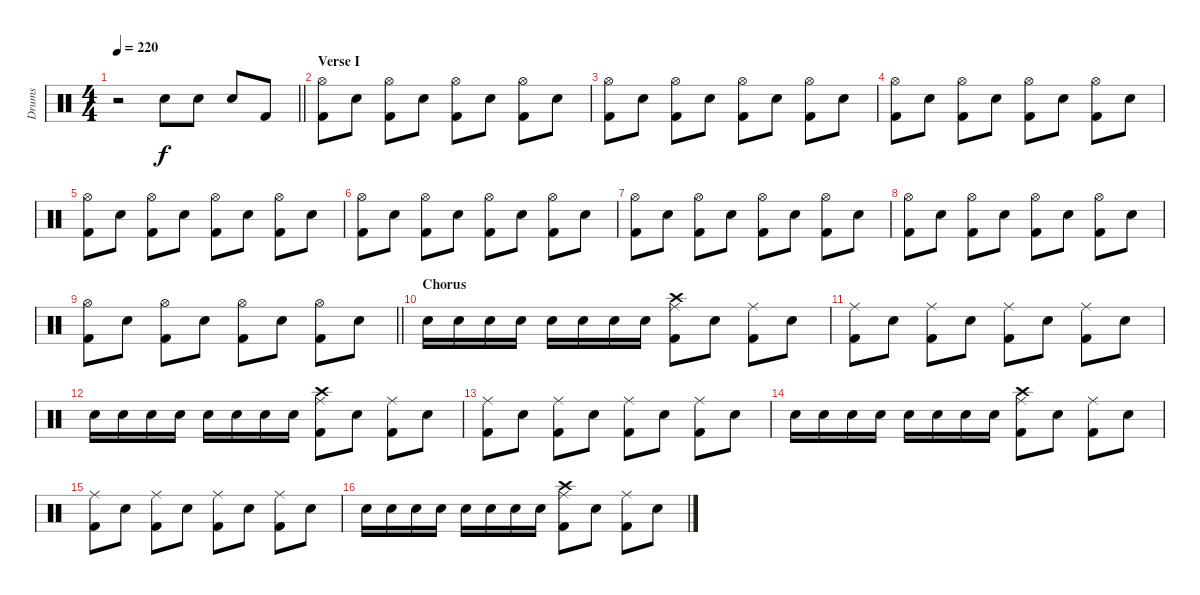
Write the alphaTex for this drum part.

\track ("Drums" "Drums") {instrument percussion}
\staff {score}
\articulation defaults
\ts (4 4)
\tempo 220
\clef neutral
\barLineRight lightlight
\ks c
r.2{dy f} "Snare (hit) 2".8 "Snare (hit) 2".8 "Snare (hit) 2".8 "Kick (hit) 2".8 |
\section ("" "Verse I")
("Kick (hit) 2" "Hi-Hat (open)").8 "Snare (hit) 2".8 ("Kick (hit) 2" "Hi-Hat (open)").8 "Snare (hit) 2".8 ("Kick (hit) 2" "Hi-Hat (open)").8 "Snare (hit) 2".8 ("Kick (hit) 2" "Hi-Hat (open)").8 "Snare (hit) 2".8 |
("Kick (hit) 2" "Hi-Hat (open)").8 "Snare (hit) 2".8 ("Kick (hit) 2" "Hi-Hat (open)").8 "Snare (hit) 2".8 ("Kick (hit) 2" "Hi-Hat (open)").8 "Snare (hit) 2".8 ("Kick (hit) 2" "Hi-Hat (open)").8 "Snare (hit) 2".8 |
("Kick (hit) 2" "Hi-Hat (open)").8 "Snare (hit) 2".8 ("Kick (hit) 2" "Hi-Hat (open)").8 "Snare (hit) 2".8 ("Kick (hit) 2" "Hi-Hat (open)").8 "Snare (hit) 2".8 ("Kick (hit) 2" "Hi-Hat (open)").8 "Snare (hit) 2".8 |
("Kick (hit) 2" "Hi-Hat (open)").8 "Snare (hit) 2".8 ("Kick (hit) 2" "Hi-Hat (open)").8 "Snare (hit) 2".8 ("Kick (hit) 2" "Hi-Hat (open)").8 "Snare (hit) 2".8 ("Kick (hit) 2" "Hi-Hat (open)").8 "Snare (hit) 2".8 |
("Kick (hit) 2" "Hi-Hat (open)").8 "Snare (hit) 2".8 ("Kick (hit) 2" "Hi-Hat (open)").8 "Snare (hit) 2".8 ("Kick (hit) 2" "Hi-Hat (open)").8 "Snare (hit) 2".8 ("Kick (hit) 2" "Hi-Hat (open)").8 "Snare (hit) 2".8 |
("Kick (hit) 2" "Hi-Hat (open)").8 "Snare (hit) 2".8 ("Kick (hit) 2" "Hi-Hat (open)").8 "Snare (hit) 2".8 ("Kick (hit) 2" "Hi-Hat (open)").8 "Snare (hit) 2".8 ("Kick (hit) 2" "Hi-Hat (open)").8 "Snare (hit) 2".8 |
("Kick (hit) 2" "Hi-Hat (open)").8 "Snare (hit) 2".8 ("Kick (hit) 2" "Hi-Hat (open)").8 "Snare (hit) 2".8 ("Kick (hit) 2" "Hi-Hat (open)").8 "Snare (hit) 2".8 ("Kick (hit) 2" "Hi-Hat (open)").8 "Snare (hit) 2".8 |
\barLineRight lightlight
("Kick (hit) 2" "Hi-Hat (open)").8 "Snare (hit) 2".8 ("Kick (hit) 2" "Hi-Hat (open)").8 "Snare (hit) 2".8 ("Kick (hit) 2" "Hi-Hat (open)").8 "Snare (hit) 2".8 ("Kick (hit) 2" "Hi-Hat (open)").8 "Snare (hit) 2".8 |
\section ("" "Chorus")
"Snare (hit) 2".16 "Snare (hit) 2".16 "Snare (hit) 2".16 "Snare (hit) 2".16 "Snare (hit) 2".16 "Snare (hit) 2".16 "Snare (hit) 2".16 "Snare (hit) 2".16 ("Kick (hit) 2" "Ride (middle)" "Crash high (hit)").8 "Snare (hit) 2".8 ("Kick (hit) 2" "Ride (middle)").8 "Snare (hit) 2".8 |
("Kick (hit) 2" "Ride (middle)").8 "Snare (hit) 2".8 ("Kick (hit) 2" "Ride (middle)").8 "Snare (hit) 2".8 ("Kick (hit) 2" "Ride (middle)").8 "Snare (hit) 2".8 ("Kick (hit) 2" "Ride (middle)").8 "Snare (hit) 2".8 |
"Snare (hit) 2".16 "Snare (hit) 2".16 "Snare (hit) 2".16 "Snare (hit) 2".16 "Snare (hit) 2".16 "Snare (hit) 2".16 "Snare (hit) 2".16 "Snare (hit) 2".16 ("Kick (hit) 2" "Ride (middle)" "Crash high (hit)").8 "Snare (hit) 2".8 ("Kick (hit) 2" "Ride (middle)").8 "Snare (hit) 2".8 |
("Kick (hit) 2" "Ride (middle)").8 "Snare (hit) 2".8 ("Kick (hit) 2" "Ride (middle)").8 "Snare (hit) 2".8 ("Kick (hit) 2" "Ride (middle)").8 "Snare (hit) 2".8 ("Kick (hit) 2" "Ride (middle)").8 "Snare (hit) 2".8 |
"Snare (hit) 2".16 "Snare (hit) 2".16 "Snare (hit) 2".16 "Snare (hit) 2".16 "Snare (hit) 2".16 "Snare (hit) 2".16 "Snare (hit) 2".16 "Snare (hit) 2".16 ("Kick (hit) 2" "Ride (middle)" "Crash high (hit)").8 "Snare (hit) 2".8 ("Kick (hit) 2" "Ride (middle)").8 "Snare (hit) 2".8 |
("Kick (hit) 2" "Ride (middle)").8 "Snare (hit) 2".8 ("Kick (hit) 2" "Ride (middle)").8 "Snare (hit) 2".8 ("Kick (hit) 2" "Ride (middle)").8 "Snare (hit) 2".8 ("Kick (hit) 2" "Ride (middle)").8 "Snare (hit) 2".8 |
"Snare (hit) 2".16 "Snare (hit) 2".16 "Snare (hit) 2".16 "Snare (hit) 2".16 "Snare (hit) 2".16 "Snare (hit) 2".16 "Snare (hit) 2".16 "Snare (hit) 2".16 ("Kick (hit) 2" "Ride (middle)" "Crash high (hit)").8 "Snare (hit) 2".8 ("Kick (hit) 2" "Ride (middle)").8 "Snare (hit) 2".8
